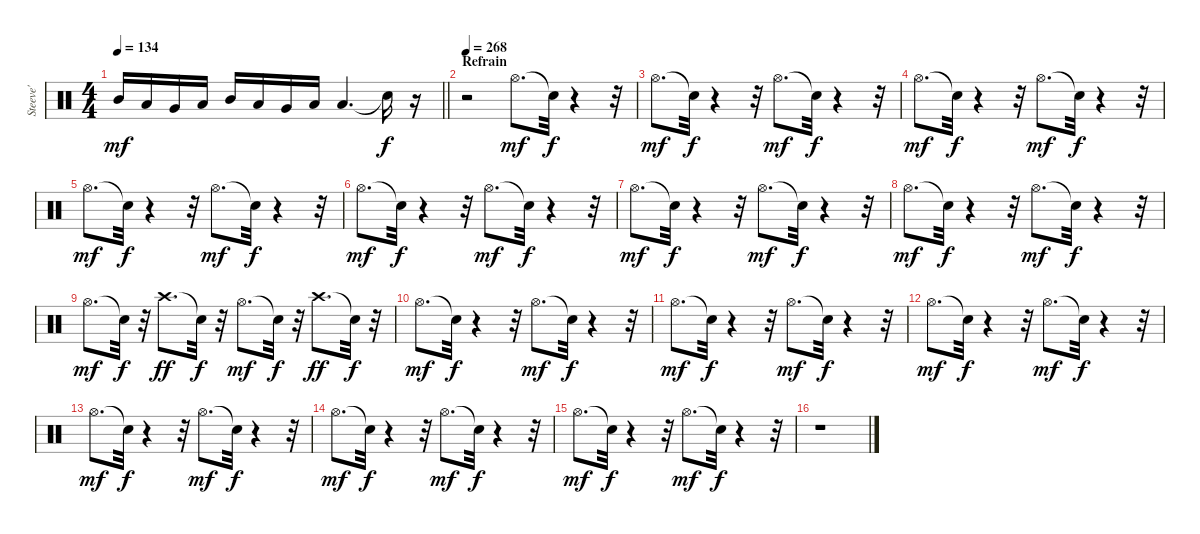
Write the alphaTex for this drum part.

\track ("Steeve'" "Steeve'") {instrument percussion}
\staff {score}
\articulation defaults
\ts (4 4)
\tempo 134
\clef neutral
\barLineRight lightlight
\ks c "Mid Tom (hit)".16{dy mf} "Low Tom (hit)".16 "Very Low Tom (hit)".16 "Low Floor Tom (hit)".16 "Mid Tom (hit)".16 "Low Tom (hit)".16 "Very Low Tom (hit)".16 "Low Floor Tom (hit)".16 "Low Floor Tom (hit)".4{d} "Snare (hit)"{t}.16{dy f}
r.16 |
\section ("" "Refrain")
\tempo 268
r.2 "Hi-Hat (open)".8{d dy mf} "Snare (hit)"{t}.32{dy f} r.4 r.32 |
"Hi-Hat (open)".8{d dy mf} "Snare (hit)"{t}.32{dy f} r.4 r.32 "Hi-Hat (open)".8{d dy mf} "Snare (hit)"{t}.32{dy f} r.4 r.32 |
"Hi-Hat (open)".8{d dy mf} "Snare (hit)"{t}.32{dy f} r.4 r.32 "Hi-Hat (open)".8{d dy mf} "Snare (hit)"{t}.32{dy f} r.4 r.32 |
"Hi-Hat (open)".8{d dy mf} "Snare (hit)"{t}.32{dy f} r.4 r.32 "Hi-Hat (open)".8{d dy mf} "Snare (hit)"{t}.32{dy f} r.4 r.32 |
"Hi-Hat (open)".8{d dy mf} "Snare (hit)"{t}.32{dy f} r.4 r.32 "Hi-Hat (open)".8{d dy mf} "Snare (hit)"{t}.32{dy f} r.4 r.32 |
"Hi-Hat (open)".8{d dy mf} "Snare (hit)"{t}.32{dy f} r.4 r.32 "Hi-Hat (open)".8{d dy mf} "Snare (hit)"{t}.32{dy f} r.4 r.32 |
"Hi-Hat (open)".8{d dy mf} "Snare (hit)"{t}.32{dy f} r.4 r.32 "Hi-Hat (open)".8{d dy mf} "Snare (hit)"{t}.32{dy f} r.4 r.32 |
"Hi-Hat (open)".8{d dy mf} "Snare (hit)"{t}.32{dy f} r.32 "Crash high (hit)".8{d dy ff} "Snare (hit)"{t}.32{dy f} r.32 "Hi-Hat (open)".8{d dy mf} "Snare (hit)"{t}.32{dy f} r.32 "Crash high (hit)".8{d dy ff} "Snare (hit)"{t}.32{dy f} r.32 |
"Hi-Hat (open)".8{d dy mf} "Snare (hit)"{t}.32{dy f} r.4 r.32 "Hi-Hat (open)".8{d dy mf} "Snare (hit)"{t}.32{dy f} r.4 r.32 |
"Hi-Hat (open)".8{d dy mf} "Snare (hit)"{t}.32{dy f} r.4 r.32 "Hi-Hat (open)".8{d dy mf} "Snare (hit)"{t}.32{dy f} r.4 r.32 |
"Hi-Hat (open)".8{d dy mf} "Snare (hit)"{t}.32{dy f} r.4 r.32 "Hi-Hat (open)".8{d dy mf} "Snare (hit)"{t}.32{dy f} r.4 r.32 |
"Hi-Hat (open)".8{d dy mf} "Snare (hit)"{t}.32{dy f} r.4 r.32 "Hi-Hat (open)".8{d dy mf} "Snare (hit)"{t}.32{dy f} r.4 r.32 |
"Hi-Hat (open)".8{d dy mf} "Snare (hit)"{t}.32{dy f} r.4 r.32 "Hi-Hat (open)".8{d dy mf} "Snare (hit)"{t}.32{dy f} r.4 r.32 |
"Hi-Hat (open)".8{d dy mf} "Snare (hit)"{t}.32{dy f} r.4 r.32 "Hi-Hat (open)".8{d dy mf} "Snare (hit)"{t}.32{dy f} r.4 r.32 |
r.1
